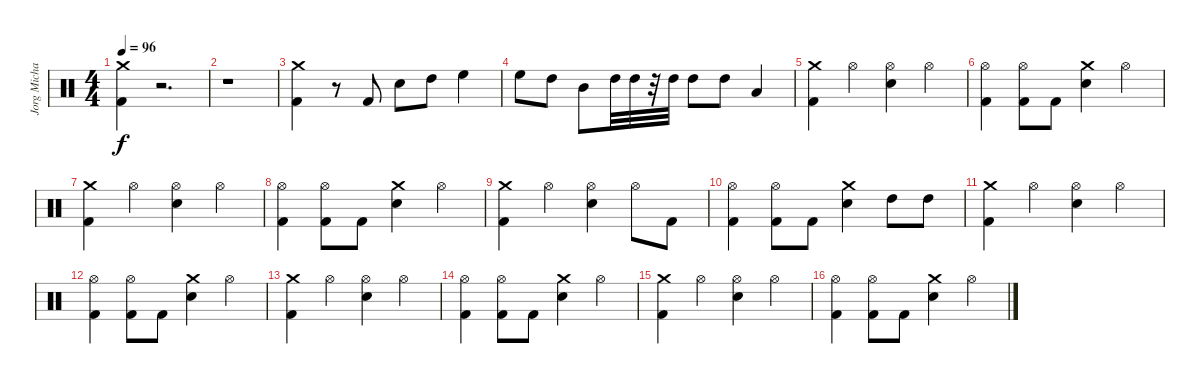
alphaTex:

\track ("Jorg Michael" "Jorg Micha") {instrument percussion}
\staff {score}
\articulation defaults
\ts (4 4)
\tempo 96
\clef neutral
\ks c
("Crash medium (hit)" "Kick (hit) 2").4{dy f} r.2{d} |
r.1 |
("Kick (hit) 2" "Crash medium (hit)").4 r.8 "Kick (hit) 2".8 "Snare (hit) 2".8 "High Tom (hit)".8 "High Floor Tom (hit)".4 |
"High Floor Tom (hit)".8 "High Tom (hit)".8 "Mid Tom (hit)".8 "High Tom (hit)".32 "High Tom (hit)".32 r.32 "High Tom (hit)".32 "High Tom (hit)".8 "High Tom (hit)".8 "Low Tom (hit)".4 |
("Kick (hit) 2" "Crash medium (hit)").4 "Hi-Hat (open)".4 ("Snare (hit) 2" "Hi-Hat (open)").4 "Hi-Hat (open)".4 |
("Kick (hit) 2" "Hi-Hat (open)").4 ("Kick (hit) 2" "Hi-Hat (open)").8 "Kick (hit) 2".8 ("Snare (hit) 2" "Crash medium (hit)").4 "Hi-Hat (open)".4 |
("Kick (hit) 2" "Crash medium (hit)").4 "Hi-Hat (open)".4 ("Snare (hit) 2" "Hi-Hat (open)").4 "Hi-Hat (open)".4 |
("Kick (hit) 2" "Hi-Hat (open)").4 ("Kick (hit) 2" "Hi-Hat (open)").8 "Kick (hit) 2".8 ("Snare (hit) 2" "Crash medium (hit)").4 "Hi-Hat (open)".4 |
("Kick (hit) 2" "Crash medium (hit)").4 "Hi-Hat (open)".4 ("Snare (hit) 2" "Hi-Hat (open)").4 "Hi-Hat (open)".8 "Kick (hit) 2".8 |
("Kick (hit) 2" "Hi-Hat (open)").4 ("Kick (hit) 2" "Hi-Hat (open)").8 "Kick (hit) 2".8 ("Snare (hit) 2" "Crash medium (hit)").4 "High Tom (hit)".8 "High Tom (hit)".8 |
("Kick (hit) 2" "Crash medium (hit)").4 "Hi-Hat (open)".4 ("Snare (hit) 2" "Hi-Hat (open)").4 "Hi-Hat (open)".4 |
("Kick (hit) 2" "Hi-Hat (open)").4 ("Kick (hit) 2" "Hi-Hat (open)").8 "Kick (hit) 2".8 ("Snare (hit) 2" "Crash medium (hit)").4 "Hi-Hat (open)".4 |
("Kick (hit) 2" "Crash medium (hit)").4 "Hi-Hat (open)".4 ("Snare (hit) 2" "Hi-Hat (open)").4 "Hi-Hat (open)".4 |
("Kick (hit) 2" "Hi-Hat (open)").4 ("Kick (hit) 2" "Hi-Hat (open)").8 "Kick (hit) 2".8 ("Snare (hit) 2" "Crash medium (hit)").4 "Hi-Hat (open)".4 |
("Kick (hit) 2" "Crash medium (hit)").4 "Hi-Hat (open)".4 ("Snare (hit) 2" "Hi-Hat (open)").4 "Hi-Hat (open)".4 |
("Kick (hit) 2" "Hi-Hat (open)").4 ("Kick (hit) 2" "Hi-Hat (open)").8 "Kick (hit) 2".8 ("Snare (hit) 2" "Crash medium (hit)").4 "Hi-Hat (open)".4
